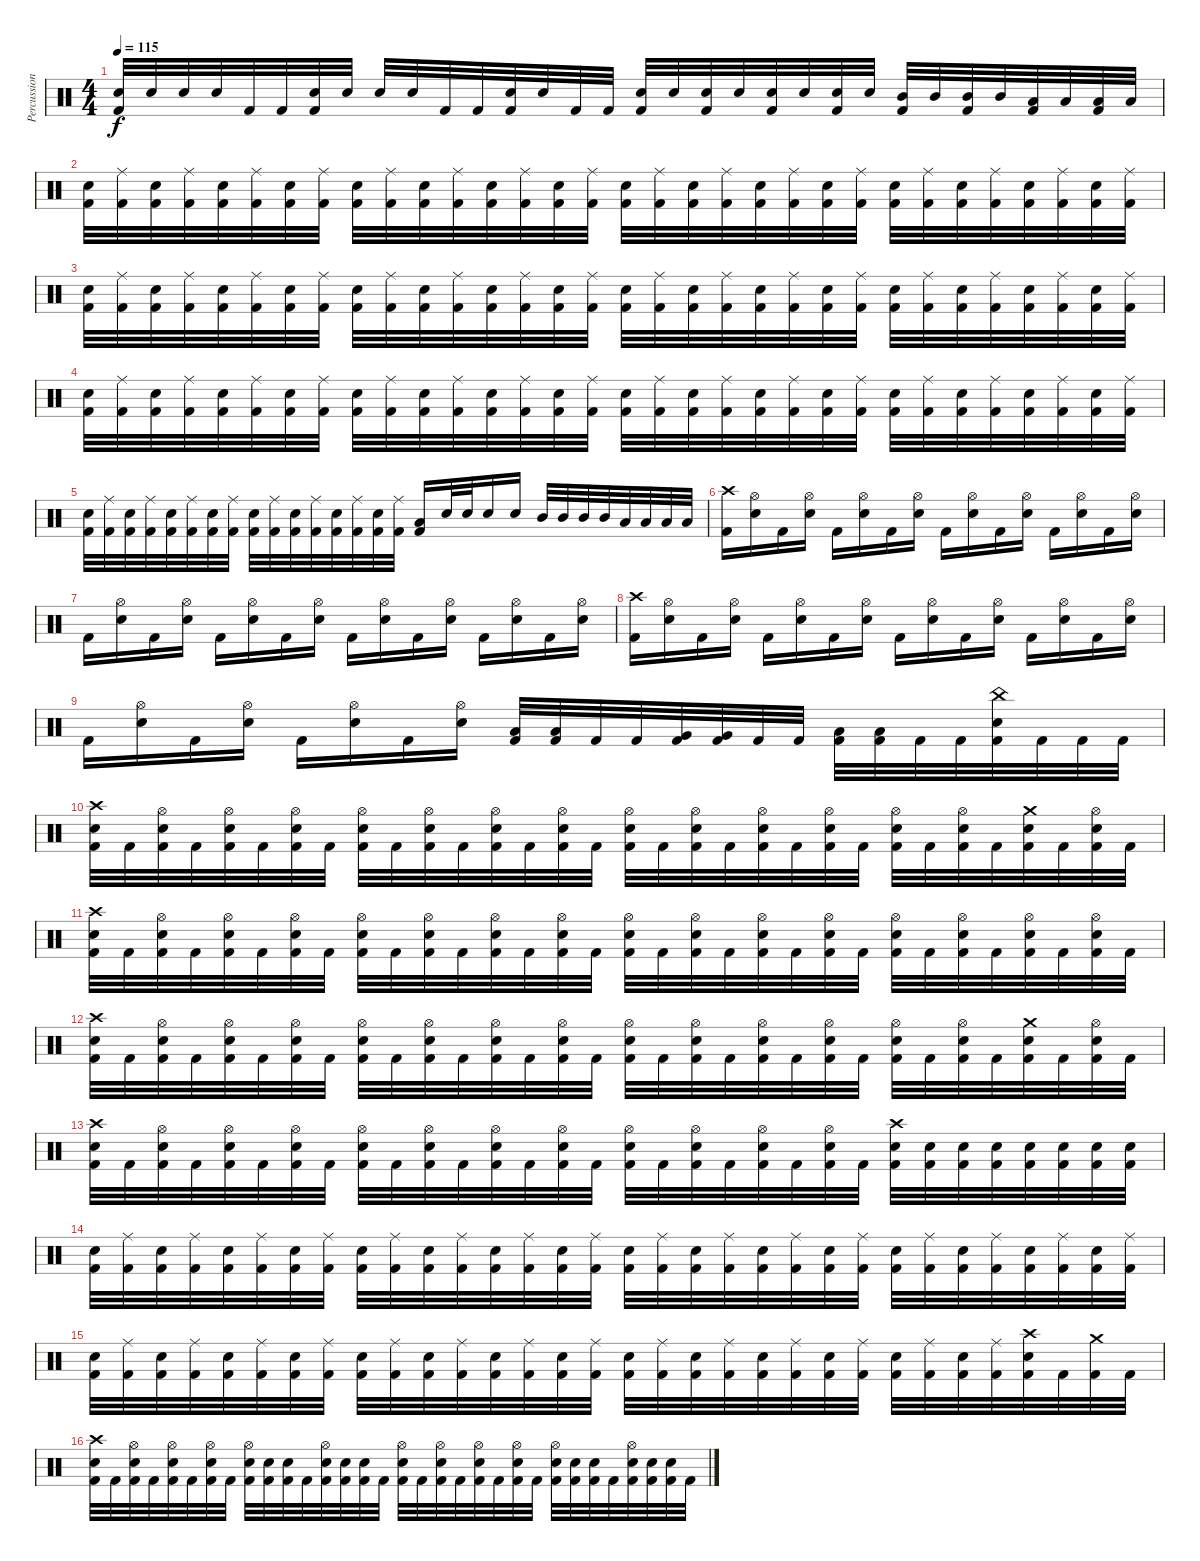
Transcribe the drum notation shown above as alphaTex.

\track ("Percussion" "Percussion") {instrument percussion}
\staff {score}
\articulation defaults
\ts (4 4)
\tempo 115
\clef neutral
\ks c
("Electric Snare (hit)" "Kick (hit) 2").32{dy f} "Electric Snare (hit)".32 "Electric Snare (hit)".32 "Electric Snare (hit)".32 "Kick (hit) 2".32 "Kick (hit) 2".32 ("Electric Snare (hit)" "Kick (hit) 2").32 "Electric Snare (hit)".32 "Electric Snare (hit)".32 "Electric Snare (hit)".32 "Kick (hit) 2".32 "Kick (hit) 2".32 ("Electric Snare (hit)" "Kick (hit) 2").32 "Electric Snare (hit)".32 "Kick (hit) 2".32 "Kick (hit) 2".32 ("Electric Snare (hit)" "Kick (hit) 2").32 "Electric Snare (hit)".32 ("Electric Snare (hit)" "Kick (hit) 2").32 "Electric Snare (hit)".32 ("Electric Snare (hit)" "Kick (hit) 2").32 "Electric Snare (hit)".32 ("Electric Snare (hit)" "Kick (hit) 2").32 "Electric Snare (hit)".32 ("Mid Tom (hit)" "Kick (hit) 2").32 "Mid Tom (hit)".32 ("Mid Tom (hit)" "Kick (hit) 2").32 "Mid Tom (hit)".32 ("Low Tom (hit)" "Kick (hit) 2").32 "Low Tom (hit)".32 ("Low Tom (hit)" "Kick (hit) 2").32 "Low Tom (hit)".32 |
("Electric Snare (hit)" "Kick (hit) 2").32 ("Ride (middle)" "Kick (hit) 2").32 ("Electric Snare (hit)" "Kick (hit) 2").32 ("Ride (middle)" "Kick (hit) 2").32 ("Electric Snare (hit)" "Kick (hit) 2").32 ("Ride (middle)" "Kick (hit) 2").32 ("Electric Snare (hit)" "Kick (hit) 2").32 ("Ride (middle)" "Kick (hit) 2").32 ("Electric Snare (hit)" "Kick (hit) 2").32 ("Ride (middle)" "Kick (hit) 2").32 ("Electric Snare (hit)" "Kick (hit) 2").32 ("Ride (middle)" "Kick (hit) 2").32 ("Electric Snare (hit)" "Kick (hit) 2").32 ("Ride (middle)" "Kick (hit) 2").32 ("Electric Snare (hit)" "Kick (hit) 2").32 ("Ride (middle)" "Kick (hit) 2").32 ("Electric Snare (hit)" "Kick (hit) 2").32 ("Ride (middle)" "Kick (hit) 2").32 ("Electric Snare (hit)" "Kick (hit) 2").32 ("Ride (middle)" "Kick (hit) 2").32 ("Electric Snare (hit)" "Kick (hit) 2").32 ("Ride (middle)" "Kick (hit) 2").32 ("Electric Snare (hit)" "Kick (hit) 2").32 ("Ride (middle)" "Kick (hit) 2").32 ("Electric Snare (hit)" "Kick (hit) 2").32 ("Ride (middle)" "Kick (hit) 2").32 ("Electric Snare (hit)" "Kick (hit) 2").32 ("Ride (middle)" "Kick (hit) 2").32 ("Electric Snare (hit)" "Kick (hit) 2").32 ("Ride (middle)" "Kick (hit) 2").32 ("Electric Snare (hit)" "Kick (hit) 2").32 ("Ride (middle)" "Kick (hit) 2").32 |
("Electric Snare (hit)" "Kick (hit) 2").32 ("Ride (middle)" "Kick (hit) 2").32 ("Electric Snare (hit)" "Kick (hit) 2").32 ("Ride (middle)" "Kick (hit) 2").32 ("Electric Snare (hit)" "Kick (hit) 2").32 ("Ride (middle)" "Kick (hit) 2").32 ("Electric Snare (hit)" "Kick (hit) 2").32 ("Ride (middle)" "Kick (hit) 2").32 ("Electric Snare (hit)" "Kick (hit) 2").32 ("Ride (middle)" "Kick (hit) 2").32 ("Electric Snare (hit)" "Kick (hit) 2").32 ("Ride (middle)" "Kick (hit) 2").32 ("Electric Snare (hit)" "Kick (hit) 2").32 ("Ride (middle)" "Kick (hit) 2").32 ("Electric Snare (hit)" "Kick (hit) 2").32 ("Ride (middle)" "Kick (hit) 2").32 ("Electric Snare (hit)" "Kick (hit) 2").32 ("Ride (middle)" "Kick (hit) 2").32 ("Electric Snare (hit)" "Kick (hit) 2").32 ("Ride (middle)" "Kick (hit) 2").32 ("Electric Snare (hit)" "Kick (hit) 2").32 ("Ride (middle)" "Kick (hit) 2").32 ("Electric Snare (hit)" "Kick (hit) 2").32 ("Ride (middle)" "Kick (hit) 2").32 ("Electric Snare (hit)" "Kick (hit) 2").32 ("Ride (middle)" "Kick (hit) 2").32 ("Electric Snare (hit)" "Kick (hit) 2").32 ("Ride (middle)" "Kick (hit) 2").32 ("Electric Snare (hit)" "Kick (hit) 2").32 ("Ride (middle)" "Kick (hit) 2").32 ("Electric Snare (hit)" "Kick (hit) 2").32 ("Ride (middle)" "Kick (hit) 2").32 |
("Electric Snare (hit)" "Kick (hit) 2").32 ("Ride (middle)" "Kick (hit) 2").32 ("Electric Snare (hit)" "Kick (hit) 2").32 ("Ride (middle)" "Kick (hit) 2").32 ("Electric Snare (hit)" "Kick (hit) 2").32 ("Ride (middle)" "Kick (hit) 2").32 ("Electric Snare (hit)" "Kick (hit) 2").32 ("Ride (middle)" "Kick (hit) 2").32 ("Electric Snare (hit)" "Kick (hit) 2").32 ("Ride (middle)" "Kick (hit) 2").32 ("Electric Snare (hit)" "Kick (hit) 2").32 ("Ride (middle)" "Kick (hit) 2").32 ("Electric Snare (hit)" "Kick (hit) 2").32 ("Ride (middle)" "Kick (hit) 2").32 ("Electric Snare (hit)" "Kick (hit) 2").32 ("Ride (middle)" "Kick (hit) 2").32 ("Electric Snare (hit)" "Kick (hit) 2").32 ("Ride (middle)" "Kick (hit) 2").32 ("Electric Snare (hit)" "Kick (hit) 2").32 ("Ride (middle)" "Kick (hit) 2").32 ("Electric Snare (hit)" "Kick (hit) 2").32 ("Ride (middle)" "Kick (hit) 2").32 ("Electric Snare (hit)" "Kick (hit) 2").32 ("Ride (middle)" "Kick (hit) 2").32 ("Electric Snare (hit)" "Kick (hit) 2").32 ("Ride (middle)" "Kick (hit) 2").32 ("Electric Snare (hit)" "Kick (hit) 2").32 ("Ride (middle)" "Kick (hit) 2").32 ("Electric Snare (hit)" "Kick (hit) 2").32 ("Ride (middle)" "Kick (hit) 2").32 ("Electric Snare (hit)" "Kick (hit) 2").32 ("Ride (middle)" "Kick (hit) 2").32 |
("Electric Snare (hit)" "Kick (hit) 2").32 ("Ride (middle)" "Kick (hit) 2").32 ("Electric Snare (hit)" "Kick (hit) 2").32 ("Ride (middle)" "Kick (hit) 2").32 ("Electric Snare (hit)" "Kick (hit) 2").32 ("Ride (middle)" "Kick (hit) 2").32 ("Electric Snare (hit)" "Kick (hit) 2").32 ("Ride (middle)" "Kick (hit) 2").32 ("Electric Snare (hit)" "Kick (hit) 2").32 ("Ride (middle)" "Kick (hit) 2").32 ("Electric Snare (hit)" "Kick (hit) 2").32 ("Ride (middle)" "Kick (hit) 2").32 ("Electric Snare (hit)" "Kick (hit) 2").32 ("Ride (middle)" "Kick (hit) 2").32 ("Electric Snare (hit)" "Kick (hit) 2").32 ("Ride (middle)" "Kick (hit) 2").32 ("Low Tom (hit)" "Kick (hit) 2").16 "Electric Snare (hit)".32 "Electric Snare (hit)".32 "Electric Snare (hit)".16 "Electric Snare (hit)".16 "Mid Tom (hit)".32 "Mid Tom (hit)".32 "Mid Tom (hit)".32 "Mid Tom (hit)".32 "Low Tom (hit)".32 "Low Tom (hit)".32 "Low Tom (hit)".32 "Low Tom (hit)".32 |
("Crash high (hit)" "Kick (hit) 2").16 ("Hi-Hat (open)" "Electric Snare (hit)").16 "Kick (hit) 2".16 ("Hi-Hat (open)" "Electric Snare (hit)").16 "Kick (hit) 2".16 ("Hi-Hat (open)" "Electric Snare (hit)").16 "Kick (hit) 2".16 ("Hi-Hat (open)" "Electric Snare (hit)").16 "Kick (hit) 2".16 ("Hi-Hat (open)" "Electric Snare (hit)").16 "Kick (hit) 2".16 ("Hi-Hat (open)" "Electric Snare (hit)").16 "Kick (hit) 2".16 ("Hi-Hat (open)" "Electric Snare (hit)").16 "Kick (hit) 2".16 ("Hi-Hat (open)" "Electric Snare (hit)").16 |
"Kick (hit) 2".16 ("Hi-Hat (open)" "Electric Snare (hit)").16 "Kick (hit) 2".16 ("Hi-Hat (open)" "Electric Snare (hit)").16 "Kick (hit) 2".16 ("Hi-Hat (open)" "Electric Snare (hit)").16 "Kick (hit) 2".16 ("Hi-Hat (open)" "Electric Snare (hit)").16 "Kick (hit) 2".16 ("Hi-Hat (open)" "Electric Snare (hit)").16 "Kick (hit) 2".16 ("Hi-Hat (open)" "Electric Snare (hit)").16 "Kick (hit) 2".16 ("Hi-Hat (open)" "Electric Snare (hit)").16 "Kick (hit) 2".16 ("Hi-Hat (open)" "Electric Snare (hit)").16 |
("Crash high (hit)" "Kick (hit) 2").16 ("Hi-Hat (open)" "Electric Snare (hit)").16 "Kick (hit) 2".16 ("Hi-Hat (open)" "Electric Snare (hit)").16 "Kick (hit) 2".16 ("Hi-Hat (open)" "Electric Snare (hit)").16 "Kick (hit) 2".16 ("Hi-Hat (open)" "Electric Snare (hit)").16 "Kick (hit) 2".16 ("Hi-Hat (open)" "Electric Snare (hit)").16 "Kick (hit) 2".16 ("Hi-Hat (open)" "Electric Snare (hit)").16 "Kick (hit) 2".16 ("Hi-Hat (open)" "Electric Snare (hit)").16 "Kick (hit) 2".16 ("Hi-Hat (open)" "Electric Snare (hit)").16 |
"Kick (hit) 2".16 ("Hi-Hat (open)" "Electric Snare (hit)").16 "Kick (hit) 2".16 ("Hi-Hat (open)" "Electric Snare (hit)").16 "Kick (hit) 2".16 ("Hi-Hat (open)" "Electric Snare (hit)").16 "Kick (hit) 2".16 ("Hi-Hat (open)" "Electric Snare (hit)").16 ("Low Tom (hit)" "Kick (hit) 2").32 ("Low Tom (hit)" "Kick (hit) 2").32 "Kick (hit) 2".32 "Kick (hit) 2".32 ("Very Low Tom (hit)" "Kick (hit) 2").32 ("Very Low Tom (hit)" "Kick (hit) 2").32 "Kick (hit) 2".32 "Kick (hit) 2".32 ("Low Tom (hit)" "Kick (hit) 2").32 ("Low Tom (hit)" "Kick (hit) 2").32 "Kick (hit) 2".32 "Kick (hit) 2".32 ("China (hit)" "Electric Snare (hit)" "Kick (hit) 2").32 "Kick (hit) 2".32 "Kick (hit) 2".32 "Kick (hit) 2".32 |
("Crash high (hit)" "Electric Snare (hit)" "Kick (hit) 2").32 "Kick (hit) 2".32 ("Hi-Hat (open)" "Electric Snare (hit)" "Kick (hit) 2").32 "Kick (hit) 2".32 ("Hi-Hat (open)" "Electric Snare (hit)" "Kick (hit) 2").32 "Kick (hit) 2".32 ("Hi-Hat (open)" "Electric Snare (hit)" "Kick (hit) 2").32 "Kick (hit) 2".32 ("Hi-Hat (open)" "Electric Snare (hit)" "Kick (hit) 2").32 "Kick (hit) 2".32 ("Hi-Hat (open)" "Electric Snare (hit)" "Kick (hit) 2").32 "Kick (hit) 2".32 ("Hi-Hat (open)" "Electric Snare (hit)" "Kick (hit) 2").32 "Kick (hit) 2".32 ("Hi-Hat (open)" "Electric Snare (hit)" "Kick (hit) 2").32 "Kick (hit) 2".32 ("Hi-Hat (open)" "Electric Snare (hit)" "Kick (hit) 2").32 "Kick (hit) 2".32 ("Hi-Hat (open)" "Electric Snare (hit)" "Kick (hit) 2").32 "Kick (hit) 2".32 ("Hi-Hat (open)" "Electric Snare (hit)" "Kick (hit) 2").32 "Kick (hit) 2".32 ("Hi-Hat (open)" "Electric Snare (hit)" "Kick (hit) 2").32 "Kick (hit) 2".32 ("Hi-Hat (open)" "Electric Snare (hit)" "Kick (hit) 2").32 "Kick (hit) 2".32 ("Hi-Hat (open)" "Electric Snare (hit)" "Kick (hit) 2").32 "Kick (hit) 2".32 ("Crash medium (hit)" "Electric Snare (hit)" "Kick (hit) 2").32 "Kick (hit) 2".32 ("Hi-Hat (open)" "Electric Snare (hit)" "Kick (hit) 2").32 "Kick (hit) 2".32 |
("Crash high (hit)" "Electric Snare (hit)" "Kick (hit) 2").32 "Kick (hit) 2".32 ("Hi-Hat (open)" "Electric Snare (hit)" "Kick (hit) 2").32 "Kick (hit) 2".32 ("Hi-Hat (open)" "Electric Snare (hit)" "Kick (hit) 2").32 "Kick (hit) 2".32 ("Hi-Hat (open)" "Electric Snare (hit)" "Kick (hit) 2").32 "Kick (hit) 2".32 ("Hi-Hat (open)" "Electric Snare (hit)" "Kick (hit) 2").32 "Kick (hit) 2".32 ("Hi-Hat (open)" "Electric Snare (hit)" "Kick (hit) 2").32 "Kick (hit) 2".32 ("Hi-Hat (open)" "Electric Snare (hit)" "Kick (hit) 2").32 "Kick (hit) 2".32 ("Hi-Hat (open)" "Electric Snare (hit)" "Kick (hit) 2").32 "Kick (hit) 2".32 ("Hi-Hat (open)" "Electric Snare (hit)" "Kick (hit) 2").32 "Kick (hit) 2".32 ("Hi-Hat (open)" "Electric Snare (hit)" "Kick (hit) 2").32 "Kick (hit) 2".32 ("Hi-Hat (open)" "Electric Snare (hit)" "Kick (hit) 2").32 "Kick (hit) 2".32 ("Hi-Hat (open)" "Electric Snare (hit)" "Kick (hit) 2").32 "Kick (hit) 2".32 ("Hi-Hat (open)" "Electric Snare (hit)" "Kick (hit) 2").32 "Kick (hit) 2".32 ("Hi-Hat (open)" "Electric Snare (hit)" "Kick (hit) 2").32 "Kick (hit) 2".32 ("Hi-Hat (open)" "Electric Snare (hit)" "Kick (hit) 2").32 "Kick (hit) 2".32 ("Hi-Hat (open)" "Electric Snare (hit)" "Kick (hit) 2").32 "Kick (hit) 2".32 |
("Crash high (hit)" "Electric Snare (hit)" "Kick (hit) 2").32 "Kick (hit) 2".32 ("Hi-Hat (open)" "Electric Snare (hit)" "Kick (hit) 2").32 "Kick (hit) 2".32 ("Hi-Hat (open)" "Electric Snare (hit)" "Kick (hit) 2").32 "Kick (hit) 2".32 ("Hi-Hat (open)" "Electric Snare (hit)" "Kick (hit) 2").32 "Kick (hit) 2".32 ("Hi-Hat (open)" "Electric Snare (hit)" "Kick (hit) 2").32 "Kick (hit) 2".32 ("Hi-Hat (open)" "Electric Snare (hit)" "Kick (hit) 2").32 "Kick (hit) 2".32 ("Hi-Hat (open)" "Electric Snare (hit)" "Kick (hit) 2").32 "Kick (hit) 2".32 ("Hi-Hat (open)" "Electric Snare (hit)" "Kick (hit) 2").32 "Kick (hit) 2".32 ("Hi-Hat (open)" "Electric Snare (hit)" "Kick (hit) 2").32 "Kick (hit) 2".32 ("Hi-Hat (open)" "Electric Snare (hit)" "Kick (hit) 2").32 "Kick (hit) 2".32 ("Hi-Hat (open)" "Electric Snare (hit)" "Kick (hit) 2").32 "Kick (hit) 2".32 ("Hi-Hat (open)" "Electric Snare (hit)" "Kick (hit) 2").32 "Kick (hit) 2".32 ("Hi-Hat (open)" "Electric Snare (hit)" "Kick (hit) 2").32 "Kick (hit) 2".32 ("Hi-Hat (open)" "Electric Snare (hit)" "Kick (hit) 2").32 "Kick (hit) 2".32 ("Crash medium (hit)" "Electric Snare (hit)" "Kick (hit) 2").32 "Kick (hit) 2".32 ("Hi-Hat (open)" "Electric Snare (hit)" "Kick (hit) 2").32 "Kick (hit) 2".32 |
("Crash high (hit)" "Electric Snare (hit)" "Kick (hit) 2").32 "Kick (hit) 2".32 ("Hi-Hat (open)" "Electric Snare (hit)" "Kick (hit) 2").32 "Kick (hit) 2".32 ("Hi-Hat (open)" "Electric Snare (hit)" "Kick (hit) 2").32 "Kick (hit) 2".32 ("Hi-Hat (open)" "Electric Snare (hit)" "Kick (hit) 2").32 "Kick (hit) 2".32 ("Hi-Hat (open)" "Electric Snare (hit)" "Kick (hit) 2").32 "Kick (hit) 2".32 ("Hi-Hat (open)" "Electric Snare (hit)" "Kick (hit) 2").32 "Kick (hit) 2".32 ("Hi-Hat (open)" "Electric Snare (hit)" "Kick (hit) 2").32 "Kick (hit) 2".32 ("Hi-Hat (open)" "Electric Snare (hit)" "Kick (hit) 2").32 "Kick (hit) 2".32 ("Hi-Hat (open)" "Electric Snare (hit)" "Kick (hit) 2").32 "Kick (hit) 2".32 ("Hi-Hat (open)" "Electric Snare (hit)" "Kick (hit) 2").32 "Kick (hit) 2".32 ("Hi-Hat (open)" "Electric Snare (hit)" "Kick (hit) 2").32 "Kick (hit) 2".32 ("Hi-Hat (open)" "Electric Snare (hit)" "Kick (hit) 2").32 "Kick (hit) 2".32 ("Crash high (hit)" "Electric Snare (hit)" "Kick (hit) 2").32 ("Electric Snare (hit)" "Kick (hit) 2").32 ("Electric Snare (hit)" "Kick (hit) 2").32 ("Electric Snare (hit)" "Kick (hit) 2").32 ("Electric Snare (hit)" "Kick (hit) 2").32 ("Electric Snare (hit)" "Kick (hit) 2").32 ("Electric Snare (hit)" "Kick (hit) 2").32 ("Electric Snare (hit)" "Kick (hit) 2").32 |
("Electric Snare (hit)" "Kick (hit) 2").32 ("Ride (middle)" "Kick (hit) 2").32 ("Electric Snare (hit)" "Kick (hit) 2").32 ("Ride (middle)" "Kick (hit) 2").32 ("Electric Snare (hit)" "Kick (hit) 2").32 ("Ride (middle)" "Kick (hit) 2").32 ("Electric Snare (hit)" "Kick (hit) 2").32 ("Ride (middle)" "Kick (hit) 2").32 ("Electric Snare (hit)" "Kick (hit) 2").32 ("Ride (middle)" "Kick (hit) 2").32 ("Electric Snare (hit)" "Kick (hit) 2").32 ("Ride (middle)" "Kick (hit) 2").32 ("Electric Snare (hit)" "Kick (hit) 2").32 ("Ride (middle)" "Kick (hit) 2").32 ("Electric Snare (hit)" "Kick (hit) 2").32 ("Ride (middle)" "Kick (hit) 2").32 ("Electric Snare (hit)" "Kick (hit) 2").32 ("Ride (middle)" "Kick (hit) 2").32 ("Electric Snare (hit)" "Kick (hit) 2").32 ("Ride (middle)" "Kick (hit) 2").32 ("Electric Snare (hit)" "Kick (hit) 2").32 ("Ride (middle)" "Kick (hit) 2").32 ("Electric Snare (hit)" "Kick (hit) 2").32 ("Ride (middle)" "Kick (hit) 2").32 ("Electric Snare (hit)" "Kick (hit) 2").32 ("Ride (middle)" "Kick (hit) 2").32 ("Electric Snare (hit)" "Kick (hit) 2").32 ("Ride (middle)" "Kick (hit) 2").32 ("Electric Snare (hit)" "Kick (hit) 2").32 ("Ride (middle)" "Kick (hit) 2").32 ("Electric Snare (hit)" "Kick (hit) 2").32 ("Ride (middle)" "Kick (hit) 2").32 |
("Electric Snare (hit)" "Kick (hit) 2").32 ("Ride (middle)" "Kick (hit) 2").32 ("Electric Snare (hit)" "Kick (hit) 2").32 ("Ride (middle)" "Kick (hit) 2").32 ("Electric Snare (hit)" "Kick (hit) 2").32 ("Ride (middle)" "Kick (hit) 2").32 ("Electric Snare (hit)" "Kick (hit) 2").32 ("Ride (middle)" "Kick (hit) 2").32 ("Electric Snare (hit)" "Kick (hit) 2").32 ("Ride (middle)" "Kick (hit) 2").32 ("Electric Snare (hit)" "Kick (hit) 2").32 ("Ride (middle)" "Kick (hit) 2").32 ("Electric Snare (hit)" "Kick (hit) 2").32 ("Ride (middle)" "Kick (hit) 2").32 ("Electric Snare (hit)" "Kick (hit) 2").32 ("Ride (middle)" "Kick (hit) 2").32 ("Electric Snare (hit)" "Kick (hit) 2").32 ("Ride (middle)" "Kick (hit) 2").32 ("Electric Snare (hit)" "Kick (hit) 2").32 ("Ride (middle)" "Kick (hit) 2").32 ("Electric Snare (hit)" "Kick (hit) 2").32 ("Ride (middle)" "Kick (hit) 2").32 ("Electric Snare (hit)" "Kick (hit) 2").32 ("Ride (middle)" "Kick (hit) 2").32 ("Electric Snare (hit)" "Kick (hit) 2").32 ("Ride (middle)" "Kick (hit) 2").32 ("Electric Snare (hit)" "Kick (hit) 2").32 ("Ride (middle)" "Kick (hit) 2").32 ("Crash high (hit)" "Electric Snare (hit)" "Kick (hit) 2").32 "Kick (hit) 2".32 ("Crash medium (hit)" "Kick (hit) 2").32 "Kick (hit) 2".32 |
("Crash high (hit)" "Electric Snare (hit)" "Kick (hit) 2").32 "Kick (hit) 2".32 ("Hi-Hat (open)" "Electric Snare (hit)" "Kick (hit) 2").32 "Kick (hit) 2".32 ("Hi-Hat (open)" "Electric Snare (hit)" "Kick (hit) 2").32 "Kick (hit) 2".32 ("Hi-Hat (open)" "Electric Snare (hit)" "Kick (hit) 2").32 "Kick (hit) 2".32 ("Hi-Hat (open)" "Electric Snare (hit)" "Kick (hit) 2").32 ("Electric Snare (hit)" "Kick (hit) 2").32 ("Electric Snare (hit)" "Kick (hit) 2").32 "Kick (hit) 2".32 ("Hi-Hat (open)" "Electric Snare (hit)" "Kick (hit) 2").32 ("Electric Snare (hit)" "Kick (hit) 2").32 ("Electric Snare (hit)" "Kick (hit) 2").32 "Kick (hit) 2".32 ("Hi-Hat (open)" "Electric Snare (hit)" "Kick (hit) 2").32 "Kick (hit) 2".32 ("Hi-Hat (open)" "Electric Snare (hit)" "Kick (hit) 2").32 "Kick (hit) 2".32 ("Hi-Hat (open)" "Electric Snare (hit)" "Kick (hit) 2").32 "Kick (hit) 2".32 ("Hi-Hat (open)" "Electric Snare (hit)" "Kick (hit) 2").32 "Kick (hit) 2".32 ("Hi-Hat (open)" "Electric Snare (hit)" "Kick (hit) 2").32 ("Electric Snare (hit)" "Kick (hit) 2").32 ("Electric Snare (hit)" "Kick (hit) 2").32 "Kick (hit) 2".32 ("Hi-Hat (open)" "Electric Snare (hit)" "Kick (hit) 2").32 ("Electric Snare (hit)" "Kick (hit) 2").32 ("Electric Snare (hit)" "Kick (hit) 2").32 "Kick (hit) 2".32
